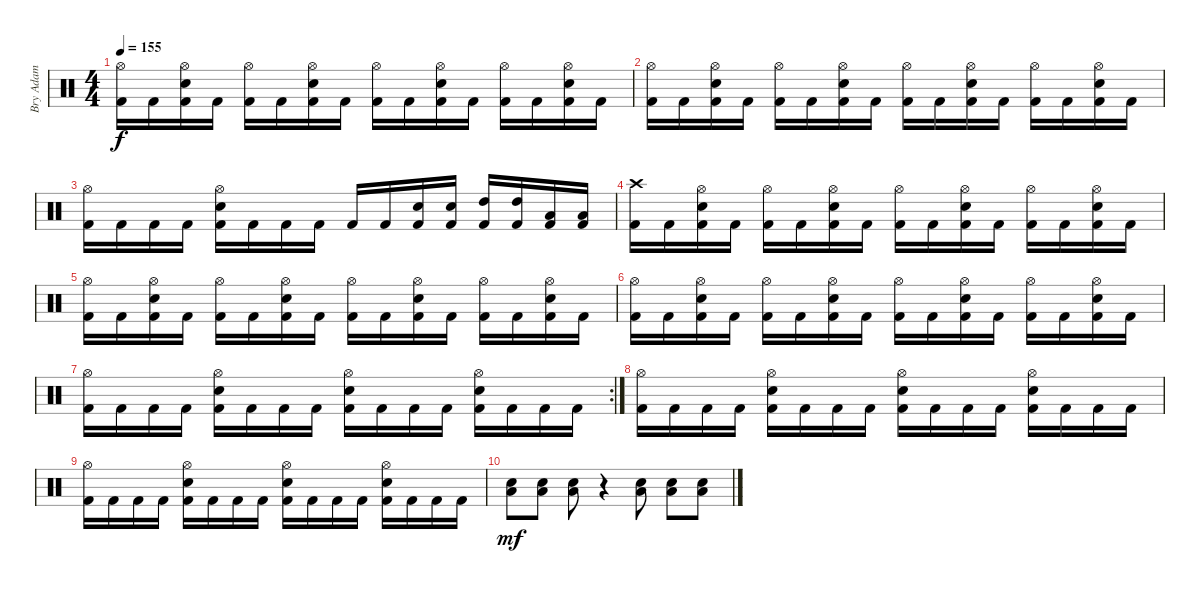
\track ("Bry Adam " "Bry Adam ") {instrument percussion}
\staff {score}
\articulation defaults
\ts (4 4)
\tempo 155
\clef neutral
\ks c
("Hi-Hat (open)" "Kick (hit) 2").16{dy f} "Kick (hit) 2".16 ("Hi-Hat (open)" "Snare (hit) 2" "Kick (hit) 2").16 "Kick (hit) 2".16 ("Hi-Hat (open)" "Kick (hit) 2").16 "Kick (hit) 2".16 ("Hi-Hat (open)" "Snare (hit) 2" "Kick (hit) 2").16 "Kick (hit) 2".16 ("Hi-Hat (open)" "Kick (hit) 2").16 "Kick (hit) 2".16 ("Hi-Hat (open)" "Snare (hit) 2" "Kick (hit) 2").16 "Kick (hit) 2".16 ("Hi-Hat (open)" "Kick (hit) 2").16 "Kick (hit) 2".16 ("Hi-Hat (open)" "Snare (hit) 2" "Kick (hit) 2").16 "Kick (hit) 2".16 |
("Hi-Hat (open)" "Kick (hit) 2").16 "Kick (hit) 2".16 ("Hi-Hat (open)" "Snare (hit) 2" "Kick (hit) 2").16 "Kick (hit) 2".16 ("Hi-Hat (open)" "Kick (hit) 2").16 "Kick (hit) 2".16 ("Hi-Hat (open)" "Snare (hit) 2" "Kick (hit) 2").16 "Kick (hit) 2".16 ("Hi-Hat (open)" "Kick (hit) 2").16 "Kick (hit) 2".16 ("Hi-Hat (open)" "Snare (hit) 2" "Kick (hit) 2").16 "Kick (hit) 2".16 ("Hi-Hat (open)" "Kick (hit) 2").16 "Kick (hit) 2".16 ("Hi-Hat (open)" "Snare (hit) 2" "Kick (hit) 2").16 "Kick (hit) 2".16 |
("Hi-Hat (open)" "Kick (hit) 2").16 "Kick (hit) 2".16 "Kick (hit) 2".16 "Kick (hit) 2".16 ("Hi-Hat (open)" "Snare (hit) 2" "Kick (hit) 2").16 "Kick (hit) 2".16 "Kick (hit) 2".16 "Kick (hit) 2".16 "Kick (hit) 2".16 "Kick (hit) 2".16 ("Snare (hit) 2" "Kick (hit) 2").16 ("Snare (hit) 2" "Kick (hit) 2").16 ("High Tom (hit)" "Kick (hit) 2").16 ("High Tom (hit)" "Kick (hit) 2").16 ("Low Tom (hit)" "Kick (hit) 2").16 ("Low Tom (hit)" "Kick (hit) 2").16 |
("Crash high (hit)" "Kick (hit) 2").16 "Kick (hit) 2".16 ("Hi-Hat (open)" "Snare (hit) 2" "Kick (hit) 2").16 "Kick (hit) 2".16 ("Hi-Hat (open)" "Kick (hit) 2").16 "Kick (hit) 2".16 ("Hi-Hat (open)" "Snare (hit) 2" "Kick (hit) 2").16 "Kick (hit) 2".16 ("Hi-Hat (open)" "Kick (hit) 2").16 "Kick (hit) 2".16 ("Hi-Hat (open)" "Snare (hit) 2" "Kick (hit) 2").16 "Kick (hit) 2".16 ("Hi-Hat (open)" "Kick (hit) 2").16 "Kick (hit) 2".16 ("Hi-Hat (open)" "Snare (hit) 2" "Kick (hit) 2").16 "Kick (hit) 2".16 |
("Hi-Hat (open)" "Kick (hit) 2").16 "Kick (hit) 2".16 ("Hi-Hat (open)" "Snare (hit) 2" "Kick (hit) 2").16 "Kick (hit) 2".16 ("Hi-Hat (open)" "Kick (hit) 2").16 "Kick (hit) 2".16 ("Hi-Hat (open)" "Snare (hit) 2" "Kick (hit) 2").16 "Kick (hit) 2".16 ("Hi-Hat (open)" "Kick (hit) 2").16 "Kick (hit) 2".16 ("Hi-Hat (open)" "Snare (hit) 2" "Kick (hit) 2").16 "Kick (hit) 2".16 ("Hi-Hat (open)" "Kick (hit) 2").16 "Kick (hit) 2".16 ("Hi-Hat (open)" "Snare (hit) 2" "Kick (hit) 2").16 "Kick (hit) 2".16 |
("Hi-Hat (open)" "Kick (hit) 2").16 "Kick (hit) 2".16 ("Hi-Hat (open)" "Snare (hit) 2" "Kick (hit) 2").16 "Kick (hit) 2".16 ("Hi-Hat (open)" "Kick (hit) 2").16 "Kick (hit) 2".16 ("Hi-Hat (open)" "Snare (hit) 2" "Kick (hit) 2").16 "Kick (hit) 2".16 ("Hi-Hat (open)" "Kick (hit) 2").16 "Kick (hit) 2".16 ("Hi-Hat (open)" "Snare (hit) 2" "Kick (hit) 2").16 "Kick (hit) 2".16 ("Hi-Hat (open)" "Kick (hit) 2").16 "Kick (hit) 2".16 ("Hi-Hat (open)" "Snare (hit) 2" "Kick (hit) 2").16 "Kick (hit) 2".16 |
\rc 2
("Hi-Hat (open)" "Kick (hit) 2").16 "Kick (hit) 2".16 "Kick (hit) 2".16 "Kick (hit) 2".16 ("Hi-Hat (open)" "Snare (hit) 2" "Kick (hit) 2").16 "Kick (hit) 2".16 "Kick (hit) 2".16 "Kick (hit) 2".16 ("Hi-Hat (open)" "Snare (hit) 2" "Kick (hit) 2").16 "Kick (hit) 2".16 "Kick (hit) 2".16 "Kick (hit) 2".16 ("Hi-Hat (open)" "Snare (hit) 2" "Kick (hit) 2").16 "Kick (hit) 2".16 "Kick (hit) 2".16 "Kick (hit) 2".16 |
("Hi-Hat (open)" "Kick (hit) 2").16 "Kick (hit) 2".16 "Kick (hit) 2".16 "Kick (hit) 2".16 ("Hi-Hat (open)" "Snare (hit) 2" "Kick (hit) 2").16 "Kick (hit) 2".16 "Kick (hit) 2".16 "Kick (hit) 2".16 ("Hi-Hat (open)" "Snare (hit) 2" "Kick (hit) 2").16 "Kick (hit) 2".16 "Kick (hit) 2".16 "Kick (hit) 2".16 ("Hi-Hat (open)" "Snare (hit) 2" "Kick (hit) 2").16 "Kick (hit) 2".16 "Kick (hit) 2".16 "Kick (hit) 2".16 |
("Hi-Hat (open)" "Kick (hit) 2").16 "Kick (hit) 2".16 "Kick (hit) 2".16 "Kick (hit) 2".16 ("Hi-Hat (open)" "Snare (hit) 2" "Kick (hit) 2").16 "Kick (hit) 2".16 "Kick (hit) 2".16 "Kick (hit) 2".16 ("Hi-Hat (open)" "Snare (hit) 2" "Kick (hit) 2").16 "Kick (hit) 2".16 "Kick (hit) 2".16 "Kick (hit) 2".16 ("Hi-Hat (open)" "Snare (hit) 2" "Kick (hit) 2").16 "Kick (hit) 2".16 "Kick (hit) 2".16 "Kick (hit) 2".16 |
("Low Tom (hit)" "Snare (hit) 2").8{dy mf} ("Low Tom (hit)" "Snare (hit) 2").8 ("Low Tom (hit)" "Snare (hit) 2").8 r.4 ("Low Tom (hit)" "Snare (hit) 2").8 ("Low Tom (hit)" "Snare (hit) 2").8 ("Low Tom (hit)" "Snare (hit) 2").8
